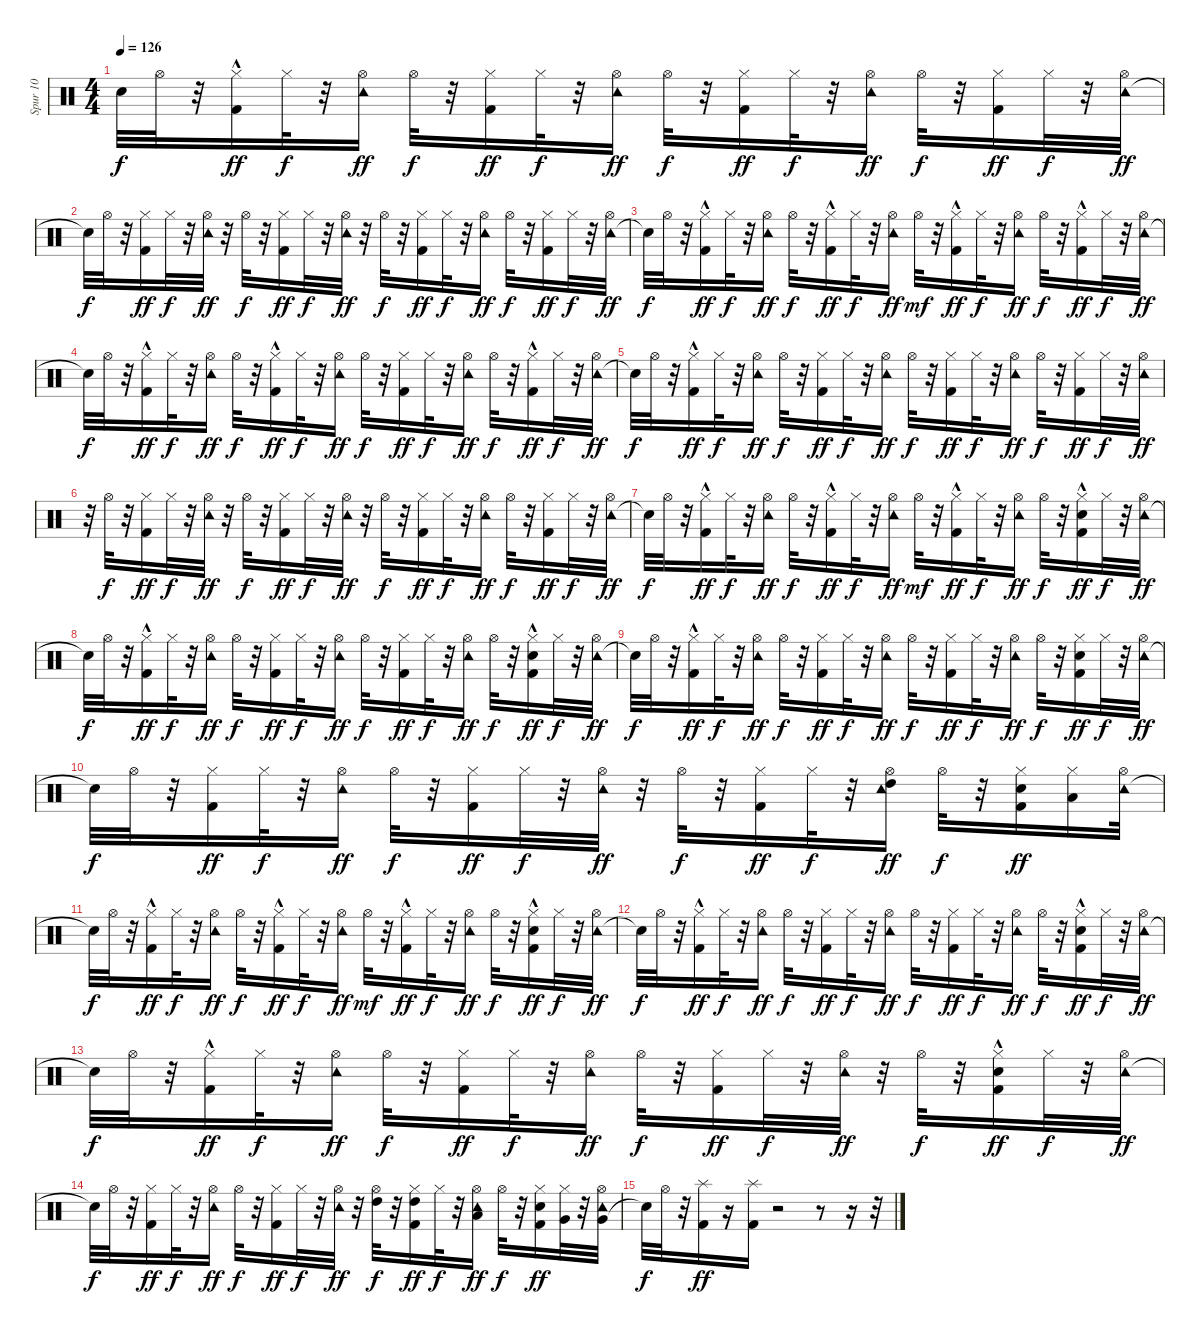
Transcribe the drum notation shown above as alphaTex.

\track ("Spur 10" "Spur 10") {instrument percussion}
\staff {score}
\articulation defaults
\ts (4 4)
\tempo 126
\clef neutral
\ks c "Snare (hit)"{t}.32{dy f} "Hi-Hat (open)".32
r.32 ("Kick (hit) 2"{hac} "Hi-Hat (closed)").16{dy ff} "Hi-Hat (closed)".32{dy f} r.32 ("Tambourine (hit)" "Hi-Hat (open)").16{dy ff} "Hi-Hat (open)".32{dy f} r.32 ("Kick (hit) 2" "Hi-Hat (closed)").16{dy ff} "Hi-Hat (closed)".32{dy f} r.32 ("Tambourine (hit)" "Hi-Hat (open)").16{dy ff} "Hi-Hat (open)".32{dy f} r.32 ("Kick (hit) 2" "Hi-Hat (closed)").16{dy ff} "Hi-Hat (closed)".32{dy f} r.32 ("Tambourine (hit)" "Hi-Hat (open)").16{dy ff} "Hi-Hat (open)".32{dy f} r.32 ("Kick (hit) 2" "Hi-Hat (closed)").16{dy ff} "Hi-Hat (closed)".32{dy f} r.32 ("Tambourine (hit)" "Hi-Hat (open)").32{dy ff} |
"Snare (hit)"{t}.32{dy f} "Hi-Hat (open)".32 r.32 ("Kick (hit) 2" "Hi-Hat (closed)").16{dy ff} "Hi-Hat (closed)".32{dy f} r.32 ("Tambourine (hit)" "Hi-Hat (open)").32{dy ff} r.32 "Hi-Hat (open)".32{dy f} r.32 ("Kick (hit) 2" "Hi-Hat (closed)").16{dy ff} "Hi-Hat (closed)".32{dy f} r.32 ("Tambourine (hit)" "Hi-Hat (open)").32{dy ff} r.32 "Hi-Hat (open)".32{dy f} r.32 ("Kick (hit) 2" "Hi-Hat (closed)").16{dy ff} "Hi-Hat (closed)".32{dy f} r.32 ("Tambourine (hit)" "Hi-Hat (open)").16{dy ff} "Hi-Hat (open)".32{dy f} r.32 ("Kick (hit) 2" "Hi-Hat (closed)").16{dy ff} "Hi-Hat (closed)".32{dy f} r.32 ("Tambourine (hit)" "Hi-Hat (open)").32{dy ff} |
"Snare (hit)"{t}.32{dy f} "Hi-Hat (open)".32 r.32 ("Kick (hit) 2"{hac} "Hi-Hat (closed)").16{dy ff} "Hi-Hat (closed)".32{dy f} r.32 ("Tambourine (hit)" "Hi-Hat (open)").16{dy ff} "Hi-Hat (open)".32{dy f} r.32 ("Kick (hit) 2"{hac} "Hi-Hat (closed)").16{dy ff} "Hi-Hat (closed)".32{dy f} r.32 ("Tambourine (hit)" "Hi-Hat (open)").16{dy ff} "Hi-Hat (open)".32{dy mf} r.32 ("Kick (hit) 2"{hac} "Hi-Hat (closed)").16{dy ff} "Hi-Hat (closed)".32{dy f} r.32 ("Tambourine (hit)" "Hi-Hat (open)").16{dy ff} "Hi-Hat (open)".32{dy f} r.32 ("Kick (hit) 2"{hac} "Hi-Hat (closed)").16{dy ff} "Hi-Hat (closed)".32{dy f} r.32 ("Tambourine (hit)" "Hi-Hat (open)").32{dy ff} |
"Snare (hit)"{t}.32{dy f} "Hi-Hat (open)".32 r.32 ("Kick (hit) 2"{hac} "Hi-Hat (closed)").16{dy ff} "Hi-Hat (closed)".32{dy f} r.32 ("Tambourine (hit)" "Hi-Hat (open)").16{dy ff} "Hi-Hat (open)".32{dy f} r.32 ("Kick (hit) 2"{hac} "Hi-Hat (closed)").16{dy ff} "Hi-Hat (closed)".32{dy f} r.32 ("Tambourine (hit)" "Hi-Hat (open)").16{dy ff} "Hi-Hat (open)".32{dy f} r.32 ("Kick (hit) 2" "Hi-Hat (closed)").16{dy ff} "Hi-Hat (closed)".32{dy f} r.32 ("Tambourine (hit)" "Hi-Hat (open)").16{dy ff} "Hi-Hat (open)".32{dy f} r.32 ("Kick (hit) 2"{hac} "Hi-Hat (closed)").16{dy ff} "Hi-Hat (closed)".32{dy f} r.32 ("Tambourine (hit)" "Hi-Hat (open)").32{dy ff} |
"Snare (hit)"{t}.32{dy f} "Hi-Hat (open)".32 r.32 ("Kick (hit) 2"{hac} "Hi-Hat (closed)").16{dy ff} "Hi-Hat (closed)".32{dy f} r.32 ("Tambourine (hit)" "Hi-Hat (open)").16{dy ff} "Hi-Hat (open)".32{dy f} r.32 ("Kick (hit) 2" "Hi-Hat (closed)").16{dy ff} "Hi-Hat (closed)".32{dy f} r.32 ("Tambourine (hit)" "Hi-Hat (open)").16{dy ff} "Hi-Hat (open)".32{dy f} r.32 ("Kick (hit) 2" "Hi-Hat (closed)").16{dy ff} "Hi-Hat (closed)".32{dy f} r.32 ("Tambourine (hit)" "Hi-Hat (open)").16{dy ff} "Hi-Hat (open)".32{dy f} r.32 ("Kick (hit) 2" "Hi-Hat (closed)").16{dy ff} "Hi-Hat (closed)".32{dy f} r.32 ("Tambourine (hit)" "Hi-Hat (open)").32{dy ff} |
r.32 "Hi-Hat (open)".32{dy f} r.32 ("Kick (hit) 2" "Hi-Hat (closed)").16{dy ff} "Hi-Hat (closed)".32{dy f} r.32 ("Tambourine (hit)" "Hi-Hat (open)").32{dy ff} r.32 "Hi-Hat (open)".32{dy f} r.32 ("Kick (hit) 2" "Hi-Hat (closed)").16{dy ff} "Hi-Hat (closed)".32{dy f} r.32 ("Tambourine (hit)" "Hi-Hat (open)").32{dy ff} r.32 "Hi-Hat (open)".32{dy f} r.32 ("Kick (hit) 2" "Hi-Hat (closed)").16{dy ff} "Hi-Hat (closed)".32{dy f} r.32 ("Tambourine (hit)" "Hi-Hat (open)").16{dy ff} "Hi-Hat (open)".32{dy f} r.32 ("Kick (hit) 2" "Hi-Hat (closed)").16{dy ff} "Hi-Hat (closed)".32{dy f} r.32 ("Tambourine (hit)" "Hi-Hat (open)").32{dy ff} |
"Snare (hit)"{t}.32{dy f} "Hi-Hat (open)".32 r.32 ("Kick (hit) 2"{hac} "Hi-Hat (closed)").16{dy ff} "Hi-Hat (closed)".32{dy f} r.32 ("Tambourine (hit)" "Hi-Hat (open)").16{dy ff} "Hi-Hat (open)".32{dy f} r.32 ("Kick (hit) 2"{hac} "Hi-Hat (closed)").16{dy ff} "Hi-Hat (closed)".32{dy f} r.32 ("Tambourine (hit)" "Hi-Hat (open)").16{dy ff} "Hi-Hat (open)".32{dy mf} r.32 ("Kick (hit) 2"{hac} "Hi-Hat (closed)").16{dy ff} "Hi-Hat (closed)".32{dy f} r.32 ("Tambourine (hit)" "Hi-Hat (open)").16{dy ff} "Hi-Hat (open)".32{dy f} r.32 ("Snare (hit) 2"{hac} "Kick (hit) 2"{hac} "Hi-Hat (closed)").16{dy ff} "Hi-Hat (closed)".32{dy f} r.32 ("Tambourine (hit)" "Hi-Hat (open)").32{dy ff} |
"Snare (hit)"{t}.32{dy f} "Hi-Hat (open)".32 r.32 ("Kick (hit) 2"{hac} "Hi-Hat (closed)").16{dy ff} "Hi-Hat (closed)".32{dy f} r.32 ("Tambourine (hit)" "Hi-Hat (open)").16{dy ff} "Hi-Hat (open)".32{dy f} r.32 ("Kick (hit) 2" "Hi-Hat (closed)").16{dy ff} "Hi-Hat (closed)".32{dy f} r.32 ("Tambourine (hit)" "Hi-Hat (open)").16{dy ff} "Hi-Hat (open)".32{dy f} r.32 ("Kick (hit) 2" "Hi-Hat (closed)").16{dy ff} "Hi-Hat (closed)".32{dy f} r.32 ("Tambourine (hit)" "Hi-Hat (open)").16{dy ff} "Hi-Hat (open)".32{dy f} r.32 ("Snare (hit) 2"{hac} "Kick (hit) 2"{hac} "Hi-Hat (closed)").16{dy ff} "Hi-Hat (closed)".32{dy f} r.32 ("Tambourine (hit)" "Hi-Hat (open)").32{dy ff} |
"Snare (hit)"{t}.32{dy f} "Hi-Hat (open)".32 r.32 ("Kick (hit) 2"{hac} "Hi-Hat (closed)").16{dy ff} "Hi-Hat (closed)".32{dy f} r.32 ("Tambourine (hit)" "Hi-Hat (open)").16{dy ff} "Hi-Hat (open)".32{dy f} r.32 ("Kick (hit) 2" "Hi-Hat (closed)").16{dy ff} "Hi-Hat (closed)".32{dy f} r.32 ("Tambourine (hit)" "Hi-Hat (open)").16{dy ff} "Hi-Hat (open)".32{dy f} r.32 ("Kick (hit) 2" "Hi-Hat (closed)").16{dy ff} "Hi-Hat (closed)".32{dy f} r.32 ("Tambourine (hit)" "Hi-Hat (open)").16{dy ff} "Hi-Hat (open)".32{dy f} r.32 ("Snare (hit) 2" "Kick (hit) 2" "Hi-Hat (closed)").16{dy ff} "Hi-Hat (closed)".32{dy f} r.32 ("Tambourine (hit)" "Hi-Hat (open)").32{dy ff} |
"Snare (hit)"{t}.32{dy f} "Hi-Hat (open)".32 r.32 ("Kick (hit) 2" "Hi-Hat (closed)").16{dy ff} "Hi-Hat (closed)".32{dy f} r.32 ("Tambourine (hit)" "Hi-Hat (open)").16{dy ff} "Hi-Hat (open)".32{dy f} r.32 ("Kick (hit) 2" "Hi-Hat (closed)").16{dy ff} "Hi-Hat (closed)".32{dy f} r.32 ("Tambourine (hit)" "Hi-Hat (open)").32{dy ff} r.32 "Hi-Hat (open)".32{dy f} r.32 ("Kick (hit) 2" "Hi-Hat (closed)").16{dy ff} "Hi-Hat (closed)".32{dy f} r.32 ("High Tom (hit)" "Tambourine (hit)" "Hi-Hat (open)").16{dy ff} "Hi-Hat (open)".32{dy f} r.32 ("Snare (hit) 2" "Kick (hit) 2" "Hi-Hat (closed)").16{dy ff} ("Low Tom (hit)" "Hi-Hat (closed)").16 ("Tambourine (hit)" "Hi-Hat (open)").32 |
"Snare (hit)"{t}.32{dy f} "Hi-Hat (open)".32 r.32 ("Kick (hit) 2"{hac} "Hi-Hat (closed)").16{dy ff} "Hi-Hat (closed)".32{dy f} r.32 ("Tambourine (hit)" "Hi-Hat (open)").16{dy ff} "Hi-Hat (open)".32{dy f} r.32 ("Kick (hit) 2"{hac} "Hi-Hat (closed)").16{dy ff} "Hi-Hat (closed)".32{dy f} r.32 ("Tambourine (hit)" "Hi-Hat (open)").16{dy ff} "Hi-Hat (open)".32{dy mf} r.32 ("Kick (hit) 2"{hac} "Hi-Hat (closed)").16{dy ff} "Hi-Hat (closed)".32{dy f} r.32 ("Tambourine (hit)" "Hi-Hat (open)").16{dy ff} "Hi-Hat (open)".32{dy f} r.32 ("Snare (hit) 2" "Kick (hit) 2"{hac} "Hi-Hat (closed)").16{dy ff} "Hi-Hat (closed)".32{dy f} r.32 ("Tambourine (hit)" "Hi-Hat (open)").32{dy ff} |
"Snare (hit)"{t}.32{dy f} "Hi-Hat (open)".32 r.32 ("Kick (hit) 2"{hac} "Hi-Hat (closed)").16{dy ff} "Hi-Hat (closed)".32{dy f} r.32 ("Tambourine (hit)" "Hi-Hat (open)").16{dy ff} "Hi-Hat (open)".32{dy f} r.32 ("Kick (hit) 2" "Hi-Hat (closed)").16{dy ff} "Hi-Hat (closed)".32{dy f} r.32 ("Tambourine (hit)" "Hi-Hat (open)").16{dy ff} "Hi-Hat (open)".32{dy f} r.32 ("Kick (hit) 2" "Hi-Hat (closed)").16{dy ff} "Hi-Hat (closed)".32{dy f} r.32 ("Tambourine (hit)" "Hi-Hat (open)").16{dy ff} "Hi-Hat (open)".32{dy f} r.32 ("Snare (hit) 2"{hac} "Kick (hit) 2"{hac} "Hi-Hat (closed)").16{dy ff} "Hi-Hat (closed)".32{dy f} r.32 ("Tambourine (hit)" "Hi-Hat (open)").32{dy ff} |
"Snare (hit)"{t}.32{dy f} "Hi-Hat (open)".32 r.32 ("Kick (hit) 2"{hac} "Hi-Hat (closed)").16{dy ff} "Hi-Hat (closed)".32{dy f} r.32 ("Tambourine (hit)" "Hi-Hat (open)").16{dy ff} "Hi-Hat (open)".32{dy f} r.32 ("Kick (hit) 2" "Hi-Hat (closed)").16{dy ff} "Hi-Hat (closed)".32{dy f} r.32 ("Tambourine (hit)" "Hi-Hat (open)").16{dy ff} "Hi-Hat (open)".32{dy f} r.32 ("Kick (hit) 2" "Hi-Hat (closed)").16{dy ff} "Hi-Hat (closed)".32{dy f} r.32 ("Tambourine (hit)" "Hi-Hat (open)").32{dy ff} r.32 "Hi-Hat (open)".32{dy f} r.32 ("Snare (hit) 2"{hac} "Kick (hit) 2" "Hi-Hat (closed)").16{dy ff} "Hi-Hat (closed)".32{dy f} r.32 ("Tambourine (hit)" "Hi-Hat (open)").32{dy ff} |
"Snare (hit)"{t}.32{dy f} "Hi-Hat (open)".32 r.32 ("Kick (hit) 2" "Hi-Hat (closed)").16{dy ff} "Hi-Hat (closed)".32{dy f} r.32 ("Tambourine (hit)" "Hi-Hat (open)").16{dy ff} "Hi-Hat (open)".32{dy f} r.32 ("Kick (hit) 2" "Hi-Hat (closed)").16{dy ff} "Hi-Hat (closed)".32{dy f} r.32 ("Tambourine (hit)" "Hi-Hat (open)").32{dy ff} r.32 ("High Tom (hit)" "Hi-Hat (open)").32{dy f} r.32 ("High Tom (hit)" "Kick (hit) 2" "Hi-Hat (closed)").16{dy ff} "Hi-Hat (closed)".32{dy f} r.32 ("Low Tom (hit)" "Tambourine (hit)" "Hi-Hat (open)").16{dy ff} "Hi-Hat (open)".32{dy f} r.32 ("Snare (hit) 2" "Kick (hit) 2" "Hi-Hat (closed)").16{dy ff} ("Very Low Tom (hit)" "Hi-Hat (closed)").32 r.32 ("Very Low Tom (hit)" "Tambourine (hit)" "Hi-Hat (open)").32 |
"Snare (hit)"{t}.32{dy f} "Hi-Hat (open)".32 r.32 ("Kick (hit) 2" "Splash (hit)").16{dy ff volume 14} r.16 ("Kick (hit) 2" "Splash (hit)").16 r.2 r.8 r.16 r.32
